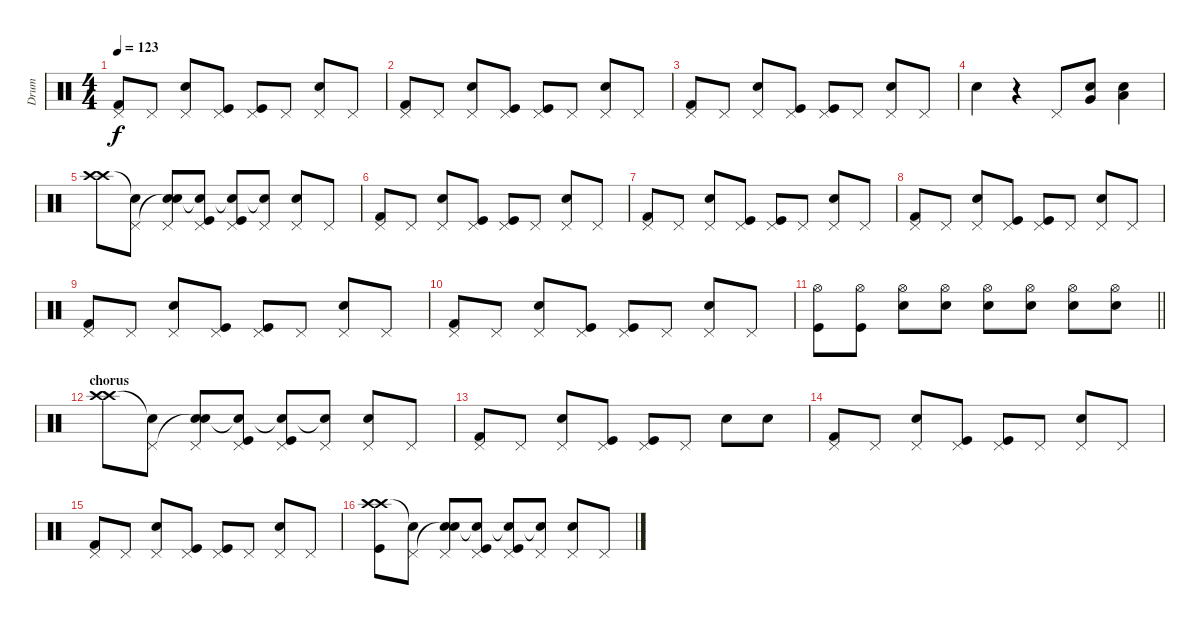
\track ("Drum" "Drum") {instrument percussion}
\staff {score}
\articulation defaults
\ts (4 4)
\tempo 123
\clef neutral
\ks c
("Kick (hit) 2" "Pedal Hi-Hat (hit)").8{dy f} "Pedal Hi-Hat (hit)".8 ("Snare (hit) 2" "Pedal Hi-Hat (hit)").8 ("Kick (hit)" "Pedal Hi-Hat (hit)").8 ("Kick (hit)" "Pedal Hi-Hat (hit)").8 "Pedal Hi-Hat (hit)".8 ("Snare (hit) 2" "Pedal Hi-Hat (hit)").8 "Pedal Hi-Hat (hit)".8 |
("Kick (hit) 2" "Pedal Hi-Hat (hit)").8 "Pedal Hi-Hat (hit)".8 ("Snare (hit) 2" "Pedal Hi-Hat (hit)").8 ("Kick (hit)" "Pedal Hi-Hat (hit)").8 ("Kick (hit)" "Pedal Hi-Hat (hit)").8 "Pedal Hi-Hat (hit)".8 ("Snare (hit) 2" "Pedal Hi-Hat (hit)").8 "Pedal Hi-Hat (hit)".8 |
("Kick (hit) 2" "Pedal Hi-Hat (hit)").8 "Pedal Hi-Hat (hit)".8 ("Snare (hit) 2" "Pedal Hi-Hat (hit)").8 ("Kick (hit)" "Pedal Hi-Hat (hit)").8 ("Kick (hit)" "Pedal Hi-Hat (hit)").8 "Pedal Hi-Hat (hit)".8 ("Snare (hit) 2" "Pedal Hi-Hat (hit)").8 "Pedal Hi-Hat (hit)".8 |
"Snare (hit) 2".4 r.4 "Pedal Hi-Hat (hit)".8 ("Electric Snare (hit)" "Very Low Tom (hit)").8 ("Electric Snare (hit)" "Low Tom (hit)").4 |
("Crash high (hit)" "Crash high (hit)").8 ("Snare (hit)"{t} "Pedal Hi-Hat (hit)").8 ("Snare (hit) 2" "Snare (hit)"{t} "Pedal Hi-Hat (hit)").8 ("Snare (hit)"{t} "Kick (hit)" "Pedal Hi-Hat (hit)").8 ("Snare (hit)"{t} "Kick (hit)" "Pedal Hi-Hat (hit)").8 ("Snare (hit)"{t} "Pedal Hi-Hat (hit)").8 ("Snare (hit) 2" "Pedal Hi-Hat (hit)").8 "Pedal Hi-Hat (hit)".8 |
("Kick (hit) 2" "Pedal Hi-Hat (hit)").8 "Pedal Hi-Hat (hit)".8 ("Snare (hit) 2" "Pedal Hi-Hat (hit)").8 ("Kick (hit)" "Pedal Hi-Hat (hit)").8 ("Kick (hit)" "Pedal Hi-Hat (hit)").8 "Pedal Hi-Hat (hit)".8 ("Snare (hit) 2" "Pedal Hi-Hat (hit)").8 "Pedal Hi-Hat (hit)".8 |
("Kick (hit) 2" "Pedal Hi-Hat (hit)").8 "Pedal Hi-Hat (hit)".8 ("Snare (hit) 2" "Pedal Hi-Hat (hit)").8 ("Kick (hit)" "Pedal Hi-Hat (hit)").8 ("Kick (hit)" "Pedal Hi-Hat (hit)").8 "Pedal Hi-Hat (hit)".8 ("Snare (hit) 2" "Pedal Hi-Hat (hit)").8 "Pedal Hi-Hat (hit)".8 |
("Kick (hit) 2" "Pedal Hi-Hat (hit)").8 "Pedal Hi-Hat (hit)".8 ("Snare (hit) 2" "Pedal Hi-Hat (hit)").8 ("Kick (hit)" "Pedal Hi-Hat (hit)").8 ("Kick (hit)" "Pedal Hi-Hat (hit)").8 "Pedal Hi-Hat (hit)".8 ("Snare (hit) 2" "Pedal Hi-Hat (hit)").8 "Pedal Hi-Hat (hit)".8 |
("Kick (hit) 2" "Pedal Hi-Hat (hit)").8 "Pedal Hi-Hat (hit)".8 ("Snare (hit) 2" "Pedal Hi-Hat (hit)").8 ("Kick (hit)" "Pedal Hi-Hat (hit)").8 ("Kick (hit)" "Pedal Hi-Hat (hit)").8 "Pedal Hi-Hat (hit)".8 ("Snare (hit) 2" "Pedal Hi-Hat (hit)").8 "Pedal Hi-Hat (hit)".8 |
("Kick (hit) 2" "Pedal Hi-Hat (hit)").8 "Pedal Hi-Hat (hit)".8 ("Snare (hit) 2" "Pedal Hi-Hat (hit)").8 ("Kick (hit)" "Pedal Hi-Hat (hit)").8 ("Kick (hit)" "Pedal Hi-Hat (hit)").8 "Pedal Hi-Hat (hit)".8 ("Snare (hit) 2" "Pedal Hi-Hat (hit)").8 "Pedal Hi-Hat (hit)".8 |
\barLineRight lightlight
("Kick (hit)" "Hi-Hat (open)").8 ("Kick (hit)" "Hi-Hat (open)").8 ("Snare (hit) 2" "Hi-Hat (open)").8 ("Snare (hit) 2" "Hi-Hat (open)").8 ("Snare (hit) 2" "Hi-Hat (open)").8 ("Snare (hit) 2" "Hi-Hat (open)").8 ("Snare (hit) 2" "Hi-Hat (open)").8 ("Snare (hit) 2" "Hi-Hat (open)").8 |
\section ("" "chorus")
("Crash high (hit)" "Crash high (hit)").8 ("Snare (hit)"{t} "Pedal Hi-Hat (hit)").8 ("Snare (hit) 2" "Snare (hit)"{t} "Pedal Hi-Hat (hit)").8 ("Snare (hit)"{t} "Kick (hit)" "Pedal Hi-Hat (hit)").8 ("Snare (hit)"{t} "Kick (hit)" "Pedal Hi-Hat (hit)").8 ("Snare (hit)"{t} "Pedal Hi-Hat (hit)").8 ("Snare (hit) 2" "Pedal Hi-Hat (hit)").8 "Pedal Hi-Hat (hit)".8 |
("Kick (hit) 2" "Pedal Hi-Hat (hit)").8 "Pedal Hi-Hat (hit)".8 ("Snare (hit) 2" "Pedal Hi-Hat (hit)").8 ("Kick (hit)" "Pedal Hi-Hat (hit)").8 ("Kick (hit)" "Pedal Hi-Hat (hit)").8 "Pedal Hi-Hat (hit)".8 "Snare (hit) 2".8 "Snare (hit) 2".8 |
("Kick (hit) 2" "Pedal Hi-Hat (hit)").8 "Pedal Hi-Hat (hit)".8 ("Snare (hit) 2" "Pedal Hi-Hat (hit)").8 ("Kick (hit)" "Pedal Hi-Hat (hit)").8 ("Kick (hit)" "Pedal Hi-Hat (hit)").8 "Pedal Hi-Hat (hit)".8 ("Snare (hit) 2" "Pedal Hi-Hat (hit)").8 "Pedal Hi-Hat (hit)".8 |
("Kick (hit) 2" "Pedal Hi-Hat (hit)").8 "Pedal Hi-Hat (hit)".8 ("Snare (hit) 2" "Pedal Hi-Hat (hit)").8 ("Kick (hit)" "Pedal Hi-Hat (hit)").8 ("Kick (hit)" "Pedal Hi-Hat (hit)").8 "Pedal Hi-Hat (hit)".8 ("Snare (hit) 2" "Pedal Hi-Hat (hit)").8 "Pedal Hi-Hat (hit)".8 |
("Crash high (hit)" "Crash high (hit)" "Kick (hit)").8 ("Snare (hit)"{t} "Pedal Hi-Hat (hit)").8 ("Snare (hit) 2" "Snare (hit)"{t} "Pedal Hi-Hat (hit)").8 ("Snare (hit)"{t} "Kick (hit)" "Pedal Hi-Hat (hit)").8 ("Snare (hit)"{t} "Kick (hit)" "Pedal Hi-Hat (hit)").8 ("Snare (hit)"{t} "Pedal Hi-Hat (hit)").8 ("Snare (hit) 2" "Pedal Hi-Hat (hit)").8 "Pedal Hi-Hat (hit)".8
